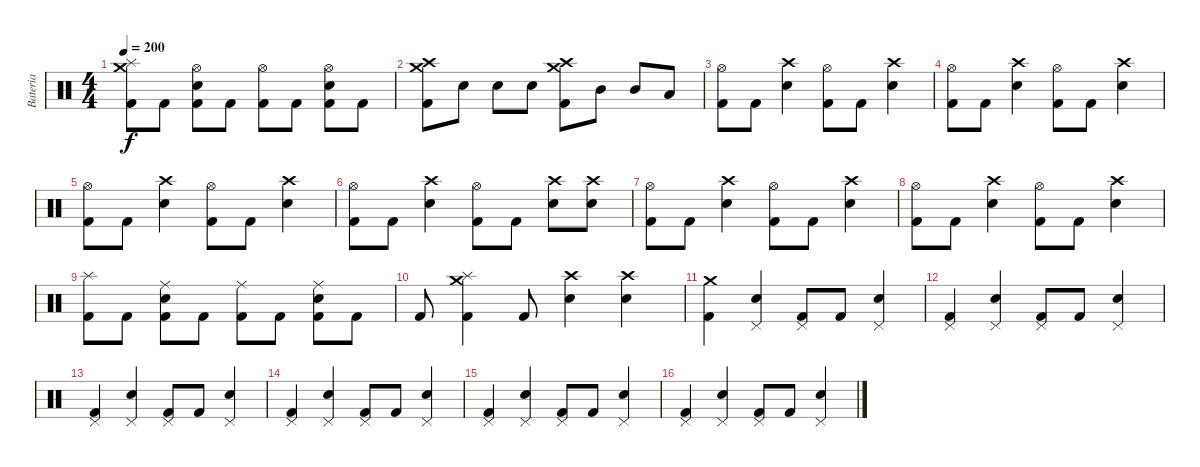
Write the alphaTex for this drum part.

\track ("Bateria " "Bateria ") {instrument percussion}
\staff {score}
\articulation defaults
\ts (4 4)
\tempo 200
\clef neutral
\ks c
("Kick (hit) 2" "Splash (hit)" "Crash medium (hit)").8{dy f} "Kick (hit) 2".8 ("Kick (hit) 2" "Electric Snare (hit)" "Hi-Hat (open)").8 "Kick (hit) 2".8 ("Kick (hit) 2" "Hi-Hat (open)").8 "Kick (hit) 2".8 ("Kick (hit) 2" "Electric Snare (hit)" "Hi-Hat (open)").8 "Kick (hit) 2".8 |
("Kick (hit) 2" "Crash high (hit)" "Crash medium (hit)").8 "Electric Snare (hit)".8 "Electric Snare (hit)".8 "Electric Snare (hit)".8 ("Kick (hit) 2" "Crash high (hit)" "Crash medium (hit)").8 "Mid Tom (hit)".8 "Mid Tom (hit)".8 "Low Tom (hit)".8 |
("Kick (hit) 2" "Hi-Hat (open)").8 "Kick (hit) 2".8 ("Electric Snare (hit)" "Crash high (hit)").4 ("Kick (hit) 2" "Hi-Hat (open)").8 "Kick (hit) 2".8 ("Electric Snare (hit)" "Crash high (hit)").4 |
("Kick (hit) 2" "Hi-Hat (open)").8 "Kick (hit) 2".8 ("Electric Snare (hit)" "Crash high (hit)").4 ("Kick (hit) 2" "Hi-Hat (open)").8 "Kick (hit) 2".8 ("Electric Snare (hit)" "Crash high (hit)").4 |
("Kick (hit) 2" "Hi-Hat (open)").8 "Kick (hit) 2".8 ("Electric Snare (hit)" "Crash high (hit)").4 ("Kick (hit) 2" "Hi-Hat (open)").8 "Kick (hit) 2".8 ("Electric Snare (hit)" "Crash high (hit)").4 |
("Kick (hit) 2" "Hi-Hat (open)").8 "Kick (hit) 2".8 ("Electric Snare (hit)" "Crash high (hit)").4 ("Kick (hit) 2" "Hi-Hat (open)").8 "Kick (hit) 2".8 ("Electric Snare (hit)" "Crash high (hit)").8 ("Electric Snare (hit)" "Crash high (hit)").8 |
("Kick (hit) 2" "Hi-Hat (open)").8 "Kick (hit) 2".8 ("Electric Snare (hit)" "Crash high (hit)").4 ("Kick (hit) 2" "Hi-Hat (open)").8 "Kick (hit) 2".8 ("Electric Snare (hit)" "Crash high (hit)").4 |
("Kick (hit) 2" "Hi-Hat (open)").8 "Kick (hit) 2".8 ("Electric Snare (hit)" "Crash high (hit)").4 ("Kick (hit) 2" "Hi-Hat (open)").8 "Kick (hit) 2".8 ("Electric Snare (hit)" "Crash high (hit)").4 |
("Kick (hit) 2" "Splash (hit)").8 "Kick (hit) 2".8 ("Kick (hit) 2" "Electric Snare (hit)" "Ride (middle)").8 "Kick (hit) 2".8 ("Kick (hit) 2" "Ride (middle)").8 "Kick (hit) 2".8 ("Kick (hit) 2" "Electric Snare (hit)" "Ride (middle)").8 "Kick (hit) 2".8 |
"Kick (hit) 2".8 ("Kick (hit) 2" "Crash medium (hit)" "Splash (hit)").4 "Kick (hit) 2".8 ("Electric Snare (hit)" "Crash high (hit)").4 ("Electric Snare (hit)" "Crash high (hit)").4 |
("Kick (hit) 2" "Crash medium (hit)").4 ("Electric Snare (hit)" "Pedal Hi-Hat (hit)").4 ("Kick (hit) 2" "Pedal Hi-Hat (hit)").8 "Kick (hit) 2".8 ("Electric Snare (hit)" "Pedal Hi-Hat (hit)").4 |
("Kick (hit) 2" "Pedal Hi-Hat (hit)").4 ("Electric Snare (hit)" "Pedal Hi-Hat (hit)").4 ("Kick (hit) 2" "Pedal Hi-Hat (hit)").8 "Kick (hit) 2".8 ("Electric Snare (hit)" "Pedal Hi-Hat (hit)").4 |
("Kick (hit) 2" "Pedal Hi-Hat (hit)").4 ("Electric Snare (hit)" "Pedal Hi-Hat (hit)").4 ("Kick (hit) 2" "Pedal Hi-Hat (hit)").8 "Kick (hit) 2".8 ("Electric Snare (hit)" "Pedal Hi-Hat (hit)").4 |
("Kick (hit) 2" "Pedal Hi-Hat (hit)").4 ("Electric Snare (hit)" "Pedal Hi-Hat (hit)").4 ("Kick (hit) 2" "Pedal Hi-Hat (hit)").8 "Kick (hit) 2".8 ("Electric Snare (hit)" "Pedal Hi-Hat (hit)").4 |
("Kick (hit) 2" "Pedal Hi-Hat (hit)").4 ("Electric Snare (hit)" "Pedal Hi-Hat (hit)").4 ("Kick (hit) 2" "Pedal Hi-Hat (hit)").8 "Kick (hit) 2".8 ("Electric Snare (hit)" "Pedal Hi-Hat (hit)").4 |
("Kick (hit) 2" "Pedal Hi-Hat (hit)").4 ("Electric Snare (hit)" "Pedal Hi-Hat (hit)").4 ("Kick (hit) 2" "Pedal Hi-Hat (hit)").8 "Kick (hit) 2".8 ("Electric Snare (hit)" "Pedal Hi-Hat (hit)").4
